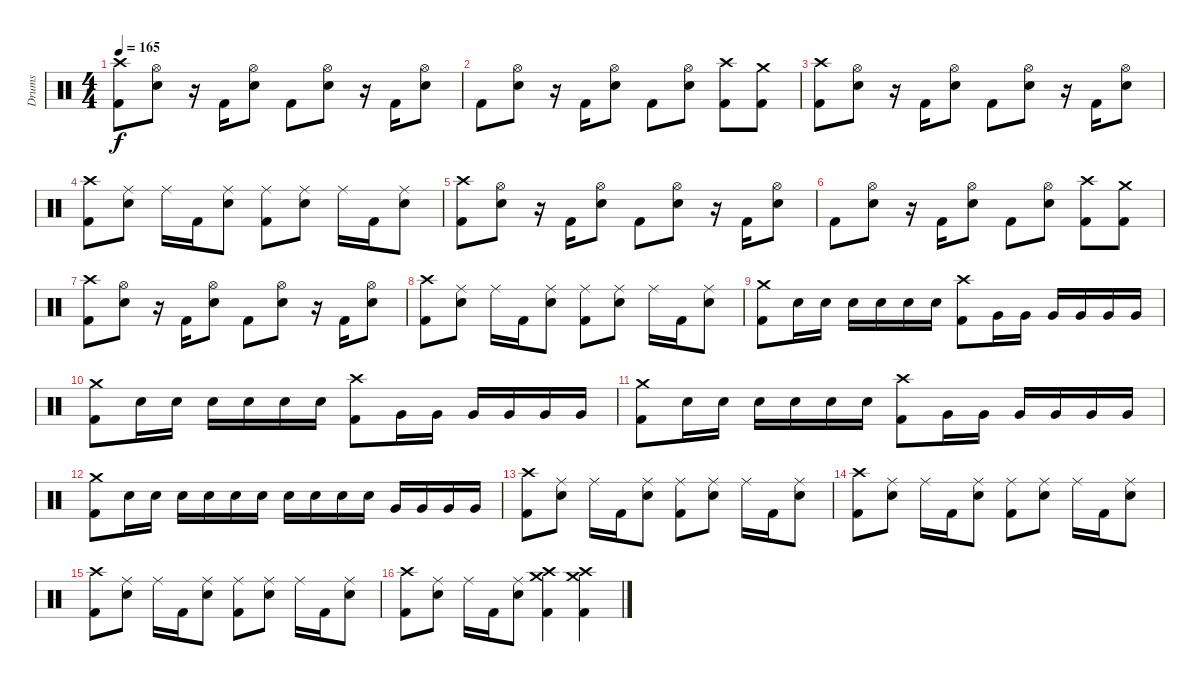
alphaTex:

\track ("Drums" "Drums") {instrument percussion}
\staff {score}
\articulation defaults
\ts (4 4)
\tempo 165
\clef neutral
\ks c
("Crash high (hit)" "Kick (hit) 2").8{dy f} ("Hi-Hat (open)" "Electric Snare (hit)").8 r.16 "Kick (hit) 2".16 ("Hi-Hat (open)" "Electric Snare (hit)").8 "Kick (hit) 2".8 ("Hi-Hat (open)" "Electric Snare (hit)").8 r.16 "Kick (hit) 2".16 ("Hi-Hat (open)" "Electric Snare (hit)").8 |
"Kick (hit) 2".8 ("Hi-Hat (open)" "Electric Snare (hit)").8 r.16 "Kick (hit) 2".16 ("Hi-Hat (open)" "Electric Snare (hit)").8 "Kick (hit) 2".8 ("Hi-Hat (open)" "Electric Snare (hit)").8 ("Crash high (hit)" "Kick (hit) 2").8 ("Crash medium (hit)" "Kick (hit) 2").8 |
("Crash high (hit)" "Kick (hit) 2").8 ("Hi-Hat (open)" "Electric Snare (hit)").8 r.16 "Kick (hit) 2".16 ("Hi-Hat (open)" "Electric Snare (hit)").8 "Kick (hit) 2".8 ("Hi-Hat (open)" "Electric Snare (hit)").8 r.16 "Kick (hit) 2".16 ("Hi-Hat (open)" "Electric Snare (hit)").8 |
("Crash high (hit)" "Kick (hit) 2").8 ("Ride (middle)" "Electric Snare (hit)").8 "Ride (middle)".16 "Kick (hit) 2".16 ("Ride (middle)" "Electric Snare (hit)").8 ("Ride (middle)" "Kick (hit) 2").8 ("Ride (middle)" "Electric Snare (hit)").8 "Ride (middle)".16 "Kick (hit) 2".16 ("Ride (middle)" "Electric Snare (hit)").8 |
("Crash high (hit)" "Kick (hit) 2").8 ("Hi-Hat (open)" "Electric Snare (hit)").8 r.16 "Kick (hit) 2".16 ("Hi-Hat (open)" "Electric Snare (hit)").8 "Kick (hit) 2".8 ("Hi-Hat (open)" "Electric Snare (hit)").8 r.16 "Kick (hit) 2".16 ("Hi-Hat (open)" "Electric Snare (hit)").8 |
"Kick (hit) 2".8 ("Hi-Hat (open)" "Electric Snare (hit)").8 r.16 "Kick (hit) 2".16 ("Hi-Hat (open)" "Electric Snare (hit)").8 "Kick (hit) 2".8 ("Hi-Hat (open)" "Electric Snare (hit)").8 ("Crash high (hit)" "Kick (hit) 2").8 ("Crash medium (hit)" "Kick (hit) 2").8 |
("Crash high (hit)" "Kick (hit) 2").8 ("Hi-Hat (open)" "Electric Snare (hit)").8 r.16 "Kick (hit) 2".16 ("Hi-Hat (open)" "Electric Snare (hit)").8 "Kick (hit) 2".8 ("Hi-Hat (open)" "Electric Snare (hit)").8 r.16 "Kick (hit) 2".16 ("Hi-Hat (open)" "Electric Snare (hit)").8 |
("Crash high (hit)" "Kick (hit) 2").8 ("Ride (middle)" "Electric Snare (hit)").8 "Ride (middle)".16 "Kick (hit) 2".16 ("Ride (middle)" "Electric Snare (hit)").8 ("Ride (middle)" "Kick (hit) 2").8 ("Ride (middle)" "Electric Snare (hit)").8 "Ride (middle)".16 "Kick (hit) 2".16 ("Ride (middle)" "Electric Snare (hit)").8 |
("Crash medium (hit)" "Kick (hit) 2").8 "Electric Snare (hit)".16 "Electric Snare (hit)".16 "Electric Snare (hit)".16 "Electric Snare (hit)".16 "Electric Snare (hit)".16 "Electric Snare (hit)".16 ("Crash high (hit)" "Kick (hit) 2").8 "Very Low Tom (hit)".16 "Very Low Tom (hit)".16 "Very Low Tom (hit)".16 "Very Low Tom (hit)".16 "Very Low Tom (hit)".16 "Very Low Tom (hit)".16 |
("Crash medium (hit)" "Kick (hit) 2").8 "Electric Snare (hit)".16 "Electric Snare (hit)".16 "Electric Snare (hit)".16 "Electric Snare (hit)".16 "Electric Snare (hit)".16 "Electric Snare (hit)".16 ("Crash high (hit)" "Kick (hit) 2").8 "Very Low Tom (hit)".16 "Very Low Tom (hit)".16 "Very Low Tom (hit)".16 "Very Low Tom (hit)".16 "Very Low Tom (hit)".16 "Very Low Tom (hit)".16 |
("Crash medium (hit)" "Kick (hit) 2").8 "Electric Snare (hit)".16 "Electric Snare (hit)".16 "Electric Snare (hit)".16 "Electric Snare (hit)".16 "Electric Snare (hit)".16 "Electric Snare (hit)".16 ("Crash high (hit)" "Kick (hit) 2").8 "Very Low Tom (hit)".16 "Very Low Tom (hit)".16 "Very Low Tom (hit)".16 "Very Low Tom (hit)".16 "Very Low Tom (hit)".16 "Very Low Tom (hit)".16 |
("Crash medium (hit)" "Kick (hit) 2").8 "Electric Snare (hit)".16 "Electric Snare (hit)".16 "Electric Snare (hit)".16 "Electric Snare (hit)".16 "Electric Snare (hit)".16 "Electric Snare (hit)".16 "Electric Snare (hit)".16 "Electric Snare (hit)".16 "Electric Snare (hit)".16 "Electric Snare (hit)".16 "Very Low Tom (hit)".16 "Very Low Tom (hit)".16 "Very Low Tom (hit)".16 "Very Low Tom (hit)".16 |
("Crash high (hit)" "Kick (hit) 2").8 ("Ride (middle)" "Electric Snare (hit)").8 "Ride (middle)".16 "Kick (hit) 2".16 ("Ride (middle)" "Electric Snare (hit)").8 ("Ride (middle)" "Kick (hit) 2").8 ("Ride (middle)" "Electric Snare (hit)").8 "Ride (middle)".16 "Kick (hit) 2".16 ("Ride (middle)" "Electric Snare (hit)").8 |
("Crash high (hit)" "Kick (hit) 2").8 ("Ride (middle)" "Electric Snare (hit)").8 "Ride (middle)".16 "Kick (hit) 2".16 ("Ride (middle)" "Electric Snare (hit)").8 ("Ride (middle)" "Kick (hit) 2").8 ("Ride (middle)" "Electric Snare (hit)").8 "Ride (middle)".16 "Kick (hit) 2".16 ("Ride (middle)" "Electric Snare (hit)").8 |
("Crash high (hit)" "Kick (hit) 2").8 ("Ride (middle)" "Electric Snare (hit)").8 "Ride (middle)".16 "Kick (hit) 2".16 ("Ride (middle)" "Electric Snare (hit)").8 ("Ride (middle)" "Kick (hit) 2").8 ("Ride (middle)" "Electric Snare (hit)").8 "Ride (middle)".16 "Kick (hit) 2".16 ("Ride (middle)" "Electric Snare (hit)").8 |
("Crash high (hit)" "Kick (hit) 2").8 ("Ride (middle)" "Electric Snare (hit)").8 "Ride (middle)".16 "Kick (hit) 2".16 ("Ride (middle)" "Electric Snare (hit)").8 ("Crash high (hit)" "Crash medium (hit)" "Kick (hit) 2").4 ("Crash high (hit)" "Crash medium (hit)" "Kick (hit) 2").4
